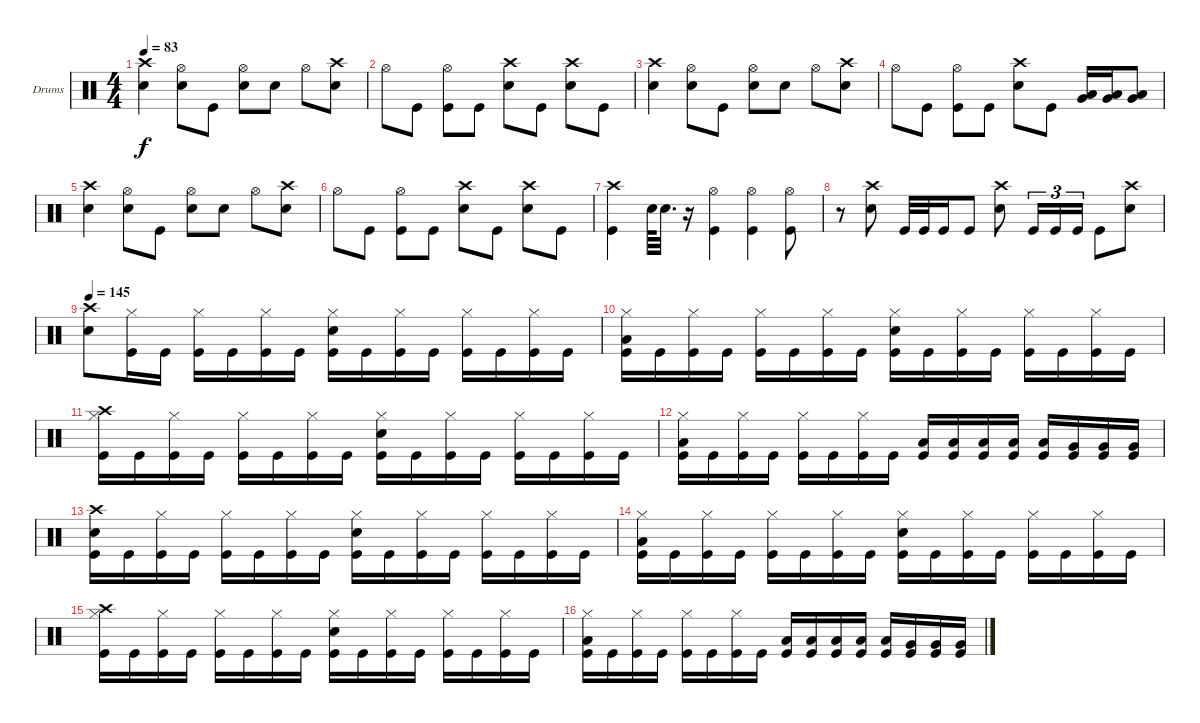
\bracketExtendMode groupsimilarinstruments
\firstSystemTrackNameOrientation horizontal
\otherSystemsTrackNameOrientation horizontal
\track ("Drumkit" "Drums") {instrument percussion}
\staff {score}
\articulation defaults
\ts (4 4)
\tempo 83
\clef neutral
\ks c
("Crash high (hit)" "Snare (hit) 2").4{dy f} ("Hi-Hat (open)" "Snare (hit) 2").8 "Kick (hit)".8 ("Hi-Hat (open)" "Snare (hit) 2").8 "Snare (hit) 2".8 "Hi-Hat (open)".8 ("Crash high (hit)" "Snare (hit) 2").8 |
"Hi-Hat (open)".8 "Kick (hit)".8 ("Hi-Hat (open)" "Kick (hit)").8 "Kick (hit)".8 ("Crash high (hit)" "Snare (hit) 2").8 "Kick (hit)".8 ("Crash high (hit)" "Snare (hit) 2").8 "Kick (hit)".8 |
("Crash high (hit)" "Snare (hit) 2").4 ("Hi-Hat (open)" "Snare (hit) 2").8 "Kick (hit)".8 ("Hi-Hat (open)" "Snare (hit) 2").8 "Snare (hit) 2".8 "Hi-Hat (open)".8 ("Crash high (hit)" "Snare (hit) 2").8 |
"Hi-Hat (open)".8 "Kick (hit)".8 ("Hi-Hat (open)" "Kick (hit)").8 "Kick (hit)".8 ("Crash high (hit)" "Snare (hit) 2").8 "Kick (hit)".8 ("Low Tom (hit)" "Very Low Tom (hit)").16 ("Low Tom (hit)" "Very Low Tom (hit)").16 ("Low Tom (hit)" "Very Low Tom (hit)").8 |
("Crash high (hit)" "Snare (hit) 2").4 ("Hi-Hat (open)" "Snare (hit) 2").8 "Kick (hit)".8 ("Hi-Hat (open)" "Snare (hit) 2").8 "Snare (hit) 2".8 "Hi-Hat (open)".8 ("Crash high (hit)" "Snare (hit) 2").8 |
"Hi-Hat (open)".8 "Kick (hit)".8 ("Hi-Hat (open)" "Kick (hit)").8 "Kick (hit)".8 ("Crash high (hit)" "Snare (hit) 2").8 "Kick (hit)".8 ("Crash high (hit)" "Snare (hit) 2").8 "Kick (hit)".8 |
("Crash high (hit)" "Kick (hit)").4 "Snare (hit) 2".64 "Snare (hit) 2".32{d} r.16 ("Hi-Hat (open)" "Kick (hit)").4 ("Hi-Hat (open)" "Kick (hit)").4 ("Hi-Hat (open)" "Kick (hit)").8 |
r.8 ("Crash high (hit)" "Snare (hit) 2").8 "Kick (hit)".32 "Kick (hit)".32 "Kick (hit)".16 "Kick (hit)".8 ("Crash high (hit)" "Snare (hit) 2").8 "Kick (hit)".16{tu (3 2)} "Kick (hit)".16{tu (3 2)} "Kick (hit)".16{tu (3 2)} "Kick (hit)".8 ("Crash high (hit)" "Snare (hit) 2").8 |
\tempo 145
("Crash high (hit)" "Snare (hit) 2").8 ("Hi-Hat (closed)" "Kick (hit)").16 "Kick (hit)".16 ("Hi-Hat (closed)" "Kick (hit)").16 "Kick (hit)".16 ("Hi-Hat (closed)" "Kick (hit)").16 "Kick (hit)".16 ("Hi-Hat (closed)" "Snare (hit) 2" "Kick (hit)").16 "Kick (hit)".16 ("Hi-Hat (closed)" "Kick (hit)").16 "Kick (hit)".16 ("Hi-Hat (closed)" "Kick (hit)").16 "Kick (hit)".16 ("Hi-Hat (closed)" "Kick (hit)").16 "Kick (hit)".16 |
("Hi-Hat (closed)" "Low Tom (hit)" "Kick (hit)").16 "Kick (hit)".16 ("Hi-Hat (closed)" "Kick (hit)").16 "Kick (hit)".16 ("Hi-Hat (closed)" "Kick (hit)").16 "Kick (hit)".16 ("Hi-Hat (closed)" "Kick (hit)").16 "Kick (hit)".16 ("Hi-Hat (closed)" "Snare (hit) 2" "Kick (hit)").16 "Kick (hit)".16 ("Hi-Hat (closed)" "Kick (hit)").16 "Kick (hit)".16 ("Hi-Hat (closed)" "Kick (hit)").16 "Kick (hit)".16 ("Hi-Hat (closed)" "Kick (hit)").16 "Kick (hit)".16 |
("Crash high (hit)" "Hi-Hat (closed)" "Kick (hit)").16 "Kick (hit)".16 ("Hi-Hat (closed)" "Kick (hit)").16 "Kick (hit)".16 ("Hi-Hat (closed)" "Kick (hit)").16 "Kick (hit)".16 ("Hi-Hat (closed)" "Kick (hit)").16 "Kick (hit)".16 ("Hi-Hat (closed)" "Snare (hit) 2" "Kick (hit)").16 "Kick (hit)".16 ("Hi-Hat (closed)" "Kick (hit)").16 "Kick (hit)".16 ("Hi-Hat (closed)" "Kick (hit)").16 "Kick (hit)".16 ("Hi-Hat (closed)" "Kick (hit)").16 "Kick (hit)".16 |
("Hi-Hat (closed)" "Low Tom (hit)" "Kick (hit)").16 "Kick (hit)".16 ("Hi-Hat (closed)" "Kick (hit)").16 "Kick (hit)".16 ("Hi-Hat (closed)" "Kick (hit)").16 "Kick (hit)".16 ("Hi-Hat (closed)" "Kick (hit)").16 "Kick (hit)".16 ("Low Tom (hit)" "Kick (hit)").16 ("Low Tom (hit)" "Kick (hit)").16 ("Low Tom (hit)" "Kick (hit)").16 ("Low Tom (hit)" "Kick (hit)").16 ("Low Tom (hit)" "Kick (hit)").16 ("Very Low Tom (hit)" "Kick (hit)").16 ("Very Low Tom (hit)" "Kick (hit)").16 ("Very Low Tom (hit)" "Kick (hit)").16 |
("Crash high (hit)" "Snare (hit) 2" "Kick (hit)").16 "Kick (hit)".16 ("Hi-Hat (closed)" "Kick (hit)").16 "Kick (hit)".16 ("Hi-Hat (closed)" "Kick (hit)").16 "Kick (hit)".16 ("Hi-Hat (closed)" "Kick (hit)").16 "Kick (hit)".16 ("Hi-Hat (closed)" "Snare (hit) 2" "Kick (hit)").16 "Kick (hit)".16 ("Hi-Hat (closed)" "Kick (hit)").16 "Kick (hit)".16 ("Hi-Hat (closed)" "Kick (hit)").16 "Kick (hit)".16 ("Hi-Hat (closed)" "Kick (hit)").16 "Kick (hit)".16 |
("Hi-Hat (closed)" "Low Tom (hit)" "Kick (hit)").16 "Kick (hit)".16 ("Hi-Hat (closed)" "Kick (hit)").16 "Kick (hit)".16 ("Hi-Hat (closed)" "Kick (hit)").16 "Kick (hit)".16 ("Hi-Hat (closed)" "Kick (hit)").16 "Kick (hit)".16 ("Hi-Hat (closed)" "Snare (hit) 2" "Kick (hit)").16 "Kick (hit)".16 ("Hi-Hat (closed)" "Kick (hit)").16 "Kick (hit)".16 ("Hi-Hat (closed)" "Kick (hit)").16 "Kick (hit)".16 ("Hi-Hat (closed)" "Kick (hit)").16 "Kick (hit)".16 |
("Crash high (hit)" "Hi-Hat (closed)" "Kick (hit)").16 "Kick (hit)".16 ("Hi-Hat (closed)" "Kick (hit)").16 "Kick (hit)".16 ("Hi-Hat (closed)" "Kick (hit)").16 "Kick (hit)".16 ("Hi-Hat (closed)" "Kick (hit)").16 "Kick (hit)".16 ("Hi-Hat (closed)" "Snare (hit) 2" "Kick (hit)").16 "Kick (hit)".16 ("Hi-Hat (closed)" "Kick (hit)").16 "Kick (hit)".16 ("Hi-Hat (closed)" "Kick (hit)").16 "Kick (hit)".16 ("Hi-Hat (closed)" "Kick (hit)").16 "Kick (hit)".16 |
("Hi-Hat (closed)" "Low Tom (hit)" "Kick (hit)").16 "Kick (hit)".16 ("Hi-Hat (closed)" "Kick (hit)").16 "Kick (hit)".16 ("Hi-Hat (closed)" "Kick (hit)").16 "Kick (hit)".16 ("Hi-Hat (closed)" "Kick (hit)").16 "Kick (hit)".16 ("Low Tom (hit)" "Kick (hit)").16 ("Low Tom (hit)" "Kick (hit)").16 ("Low Tom (hit)" "Kick (hit)").16 ("Low Tom (hit)" "Kick (hit)").16 ("Low Tom (hit)" "Kick (hit)").16 ("Very Low Tom (hit)" "Kick (hit)").16 ("Very Low Tom (hit)" "Kick (hit)").16 ("Very Low Tom (hit)" "Kick (hit)").16
